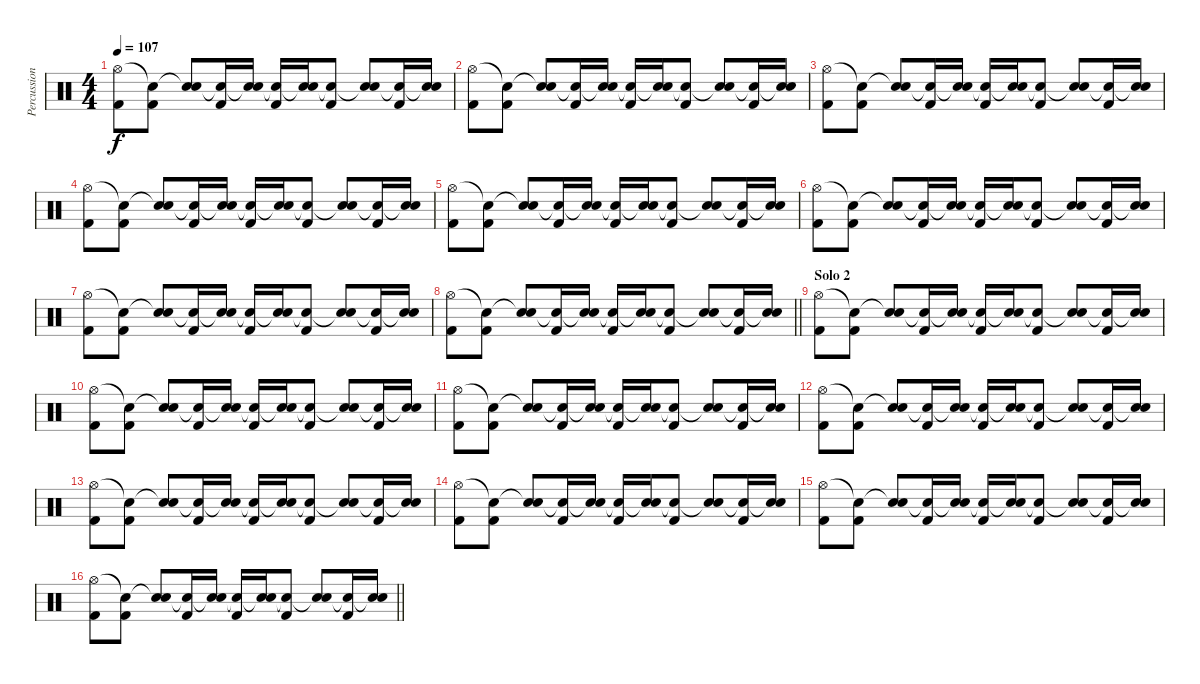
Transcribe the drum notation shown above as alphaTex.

\track ("Percussioni" "Percussion") {instrument percussion}
\staff {score}
\articulation defaults
\ts (4 4)
\tempo 107
\clef neutral
\ks c
("Hi-Hat (open)" "Kick (hit) 2").8{dy f} ("Snare (hit)"{t} "Kick (hit) 2").8 ("Snare (hit)"{t} "Electric Snare (hit)").8 ("Snare (hit)"{t} "Kick (hit) 2").16 ("Snare (hit)"{t} "Electric Snare (hit)").16 ("Snare (hit)"{t} "Kick (hit) 2").16 ("Snare (hit)"{t} "Electric Snare (hit)").16 ("Snare (hit)"{t} "Kick (hit) 2").8 ("Snare (hit)"{t} "Electric Snare (hit)").8 ("Snare (hit)"{t} "Kick (hit) 2").16 ("Snare (hit)"{t} "Electric Snare (hit)").16 |
("Hi-Hat (open)" "Kick (hit) 2").8 ("Snare (hit)"{t} "Kick (hit) 2").8 ("Snare (hit)"{t} "Electric Snare (hit)").8 ("Snare (hit)"{t} "Kick (hit) 2").16 ("Snare (hit)"{t} "Electric Snare (hit)").16 ("Snare (hit)"{t} "Kick (hit) 2").16 ("Snare (hit)"{t} "Electric Snare (hit)").16 ("Snare (hit)"{t} "Kick (hit) 2").8 ("Snare (hit)"{t} "Electric Snare (hit)").8 ("Snare (hit)"{t} "Kick (hit) 2").16 ("Snare (hit)"{t} "Electric Snare (hit)").16 |
("Hi-Hat (open)" "Kick (hit) 2").8 ("Snare (hit)"{t} "Kick (hit) 2").8 ("Snare (hit)"{t} "Electric Snare (hit)").8 ("Snare (hit)"{t} "Kick (hit) 2").16 ("Snare (hit)"{t} "Electric Snare (hit)").16 ("Snare (hit)"{t} "Kick (hit) 2").16 ("Snare (hit)"{t} "Electric Snare (hit)").16 ("Snare (hit)"{t} "Kick (hit) 2").8 ("Snare (hit)"{t} "Electric Snare (hit)").8 ("Snare (hit)"{t} "Kick (hit) 2").16 ("Snare (hit)"{t} "Electric Snare (hit)").16 |
("Hi-Hat (open)" "Kick (hit) 2").8 ("Snare (hit)"{t} "Kick (hit) 2").8 ("Snare (hit)"{t} "Electric Snare (hit)").8 ("Snare (hit)"{t} "Kick (hit) 2").16 ("Snare (hit)"{t} "Electric Snare (hit)").16 ("Snare (hit)"{t} "Kick (hit) 2").16 ("Snare (hit)"{t} "Electric Snare (hit)").16 ("Snare (hit)"{t} "Kick (hit) 2").8 ("Snare (hit)"{t} "Electric Snare (hit)").8 ("Snare (hit)"{t} "Kick (hit) 2").16 ("Snare (hit)"{t} "Electric Snare (hit)").16 |
("Hi-Hat (open)" "Kick (hit) 2").8 ("Snare (hit)"{t} "Kick (hit) 2").8 ("Snare (hit)"{t} "Electric Snare (hit)").8 ("Snare (hit)"{t} "Kick (hit) 2").16 ("Snare (hit)"{t} "Electric Snare (hit)").16 ("Snare (hit)"{t} "Kick (hit) 2").16 ("Snare (hit)"{t} "Electric Snare (hit)").16 ("Snare (hit)"{t} "Kick (hit) 2").8 ("Snare (hit)"{t} "Electric Snare (hit)").8 ("Snare (hit)"{t} "Kick (hit) 2").16 ("Snare (hit)"{t} "Electric Snare (hit)").16 |
("Hi-Hat (open)" "Kick (hit) 2").8 ("Snare (hit)"{t} "Kick (hit) 2").8 ("Snare (hit)"{t} "Electric Snare (hit)").8 ("Snare (hit)"{t} "Kick (hit) 2").16 ("Snare (hit)"{t} "Electric Snare (hit)").16 ("Snare (hit)"{t} "Kick (hit) 2").16 ("Snare (hit)"{t} "Electric Snare (hit)").16 ("Snare (hit)"{t} "Kick (hit) 2").8 ("Snare (hit)"{t} "Electric Snare (hit)").8 ("Snare (hit)"{t} "Kick (hit) 2").16 ("Snare (hit)"{t} "Electric Snare (hit)").16 |
("Hi-Hat (open)" "Kick (hit) 2").8 ("Snare (hit)"{t} "Kick (hit) 2").8 ("Snare (hit)"{t} "Electric Snare (hit)").8 ("Snare (hit)"{t} "Kick (hit) 2").16 ("Snare (hit)"{t} "Electric Snare (hit)").16 ("Snare (hit)"{t} "Kick (hit) 2").16 ("Snare (hit)"{t} "Electric Snare (hit)").16 ("Snare (hit)"{t} "Kick (hit) 2").8 ("Snare (hit)"{t} "Electric Snare (hit)").8 ("Snare (hit)"{t} "Kick (hit) 2").16 ("Snare (hit)"{t} "Electric Snare (hit)").16 |
\barLineRight lightlight
("Hi-Hat (open)" "Kick (hit) 2").8 ("Snare (hit)"{t} "Kick (hit) 2").8 ("Snare (hit)"{t} "Electric Snare (hit)").8 ("Snare (hit)"{t} "Kick (hit) 2").16 ("Snare (hit)"{t} "Electric Snare (hit)").16 ("Snare (hit)"{t} "Kick (hit) 2").16 ("Snare (hit)"{t} "Electric Snare (hit)").16 ("Snare (hit)"{t} "Kick (hit) 2").8 ("Snare (hit)"{t} "Electric Snare (hit)").8 ("Snare (hit)"{t} "Kick (hit) 2").16 ("Snare (hit)"{t} "Electric Snare (hit)").16 |
\section ("" "Solo 2")
("Hi-Hat (open)" "Kick (hit) 2").8 ("Snare (hit)"{t} "Kick (hit) 2").8 ("Snare (hit)"{t} "Electric Snare (hit)").8 ("Snare (hit)"{t} "Kick (hit) 2").16 ("Snare (hit)"{t} "Electric Snare (hit)").16 ("Snare (hit)"{t} "Kick (hit) 2").16 ("Snare (hit)"{t} "Electric Snare (hit)").16 ("Snare (hit)"{t} "Kick (hit) 2").8 ("Snare (hit)"{t} "Electric Snare (hit)").8 ("Snare (hit)"{t} "Kick (hit) 2").16 ("Snare (hit)"{t} "Electric Snare (hit)").16 |
("Hi-Hat (open)" "Kick (hit) 2").8 ("Snare (hit)"{t} "Kick (hit) 2").8 ("Snare (hit)"{t} "Electric Snare (hit)").8 ("Snare (hit)"{t} "Kick (hit) 2").16 ("Snare (hit)"{t} "Electric Snare (hit)").16 ("Snare (hit)"{t} "Kick (hit) 2").16 ("Snare (hit)"{t} "Electric Snare (hit)").16 ("Snare (hit)"{t} "Kick (hit) 2").8 ("Snare (hit)"{t} "Electric Snare (hit)").8 ("Snare (hit)"{t} "Kick (hit) 2").16 ("Snare (hit)"{t} "Electric Snare (hit)").16 |
("Hi-Hat (open)" "Kick (hit) 2").8 ("Snare (hit)"{t} "Kick (hit) 2").8 ("Snare (hit)"{t} "Electric Snare (hit)").8 ("Snare (hit)"{t} "Kick (hit) 2").16 ("Snare (hit)"{t} "Electric Snare (hit)").16 ("Snare (hit)"{t} "Kick (hit) 2").16 ("Snare (hit)"{t} "Electric Snare (hit)").16 ("Snare (hit)"{t} "Kick (hit) 2").8 ("Snare (hit)"{t} "Electric Snare (hit)").8 ("Snare (hit)"{t} "Kick (hit) 2").16 ("Snare (hit)"{t} "Electric Snare (hit)").16 |
("Hi-Hat (open)" "Kick (hit) 2").8 ("Snare (hit)"{t} "Kick (hit) 2").8 ("Snare (hit)"{t} "Electric Snare (hit)").8 ("Snare (hit)"{t} "Kick (hit) 2").16 ("Snare (hit)"{t} "Electric Snare (hit)").16 ("Snare (hit)"{t} "Kick (hit) 2").16 ("Snare (hit)"{t} "Electric Snare (hit)").16 ("Snare (hit)"{t} "Kick (hit) 2").8 ("Snare (hit)"{t} "Electric Snare (hit)").8 ("Snare (hit)"{t} "Kick (hit) 2").16 ("Snare (hit)"{t} "Electric Snare (hit)").16 |
("Hi-Hat (open)" "Kick (hit) 2").8 ("Snare (hit)"{t} "Kick (hit) 2").8 ("Snare (hit)"{t} "Electric Snare (hit)").8 ("Snare (hit)"{t} "Kick (hit) 2").16 ("Snare (hit)"{t} "Electric Snare (hit)").16 ("Snare (hit)"{t} "Kick (hit) 2").16 ("Snare (hit)"{t} "Electric Snare (hit)").16 ("Snare (hit)"{t} "Kick (hit) 2").8 ("Snare (hit)"{t} "Electric Snare (hit)").8 ("Snare (hit)"{t} "Kick (hit) 2").16 ("Snare (hit)"{t} "Electric Snare (hit)").16 |
("Hi-Hat (open)" "Kick (hit) 2").8 ("Snare (hit)"{t} "Kick (hit) 2").8 ("Snare (hit)"{t} "Electric Snare (hit)").8 ("Snare (hit)"{t} "Kick (hit) 2").16 ("Snare (hit)"{t} "Electric Snare (hit)").16 ("Snare (hit)"{t} "Kick (hit) 2").16 ("Snare (hit)"{t} "Electric Snare (hit)").16 ("Snare (hit)"{t} "Kick (hit) 2").8 ("Snare (hit)"{t} "Electric Snare (hit)").8 ("Snare (hit)"{t} "Kick (hit) 2").16 ("Snare (hit)"{t} "Electric Snare (hit)").16 |
("Hi-Hat (open)" "Kick (hit) 2").8 ("Snare (hit)"{t} "Kick (hit) 2").8 ("Snare (hit)"{t} "Electric Snare (hit)").8 ("Snare (hit)"{t} "Kick (hit) 2").16 ("Snare (hit)"{t} "Electric Snare (hit)").16 ("Snare (hit)"{t} "Kick (hit) 2").16 ("Snare (hit)"{t} "Electric Snare (hit)").16 ("Snare (hit)"{t} "Kick (hit) 2").8 ("Snare (hit)"{t} "Electric Snare (hit)").8 ("Snare (hit)"{t} "Kick (hit) 2").16 ("Snare (hit)"{t} "Electric Snare (hit)").16 |
\barLineRight lightlight
("Hi-Hat (open)" "Kick (hit) 2").8 ("Snare (hit)"{t} "Kick (hit) 2").8 ("Snare (hit)"{t} "Electric Snare (hit)").8 ("Snare (hit)"{t} "Kick (hit) 2").16 ("Snare (hit)"{t} "Electric Snare (hit)").16 ("Snare (hit)"{t} "Kick (hit) 2").16 ("Snare (hit)"{t} "Electric Snare (hit)").16 ("Snare (hit)"{t} "Kick (hit) 2").8 ("Snare (hit)"{t} "Electric Snare (hit)").8 ("Snare (hit)"{t} "Kick (hit) 2").16 ("Snare (hit)"{t} "Electric Snare (hit)").16
